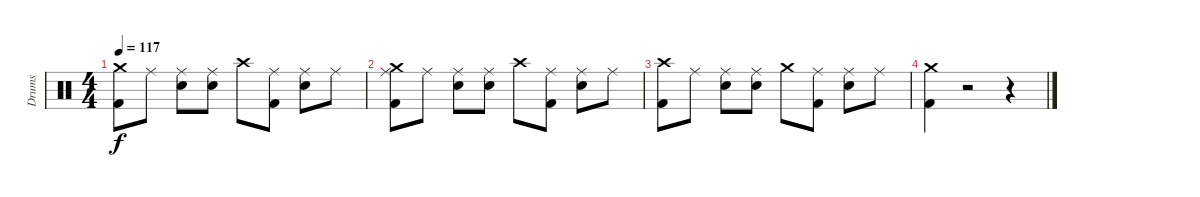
\track ("Drums" "Drums") {instrument percussion}
\staff {score}
\articulation defaults
\ts (4 4)
\tempo 117
\clef neutral
\ks c
("Crash medium (hit)" "Kick (hit) 2").8{dy f} "Ride (middle)".8 ("Ride (middle)" "Electric Snare (hit)").8 ("Ride (middle)" "Electric Snare (hit)").8 "Crash high (hit)".8 ("Ride (middle)" "Kick (hit) 2").8 ("Ride (middle)" "Electric Snare (hit)").8 "Ride (middle)".8 |
("Ride (middle)" "Crash medium (hit)" "Kick (hit) 2").8 "Ride (middle)".8 ("Ride (middle)" "Electric Snare (hit)").8 ("Ride (middle)" "Electric Snare (hit)").8 "Crash high (hit)".8 ("Ride (middle)" "Kick (hit) 2").8 ("Ride (middle)" "Electric Snare (hit)").8 "Ride (middle)".8 |
("Crash high (hit)" "Kick (hit) 2").8 "Ride (middle)".8 ("Ride (middle)" "Electric Snare (hit)").8 ("Ride (middle)" "Electric Snare (hit)").8 "Crash medium (hit)".8 ("Ride (middle)" "Kick (hit) 2").8 ("Ride (middle)" "Electric Snare (hit)").8 "Ride (middle)".8 |
("Crash medium (hit)" "Kick (hit) 2").4 r.2 r.4
